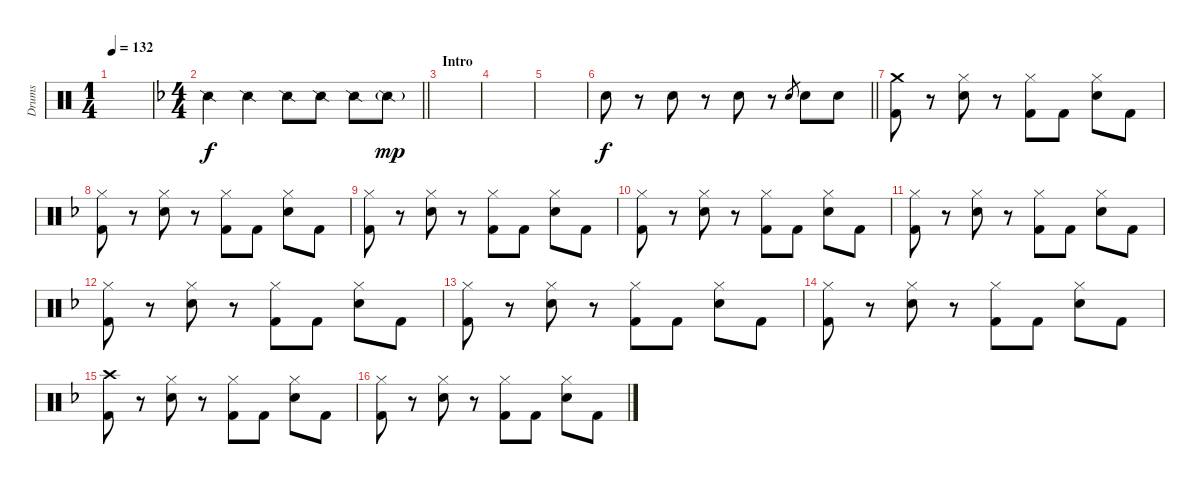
\track ("Drums" "Drums") {instrument percussion}
\staff {score}
\articulation defaults
\ts (1 4)
\tempo 132
\clef neutral
\ks c
|
\ts (4 4)
\barLineRight lightlight
\ks f "Snare (side stick) 2".4 "Snare (side stick) 2".4 "Snare (side stick) 2".8 "Snare (side stick) 2".8 "Snare (side stick) 2".8 "Snare (side stick) 2"{g}.8{dy mp}
|
\section ("" "Intro")
|
|
|
\barLineRight lightlight "Snare (hit) 2".8{dy f}
r.8 "Snare (hit) 2".8 r.8 "Snare (hit) 2".8 r.8 "Snare (hit) 2".8{gr} "Snare (hit) 2".8 "Snare (hit) 2".8 |
("Crash medium (hit)" "Kick (hit) 2").8 r.8 ("Hi-Hat (closed)" "Snare (hit) 2").8 r.8 ("Hi-Hat (closed)" "Kick (hit) 2").8 "Kick (hit) 2".8 ("Hi-Hat (closed)" "Snare (hit) 2").8 "Kick (hit) 2".8 |
("Hi-Hat (closed)" "Kick (hit) 2").8 r.8 ("Hi-Hat (closed)" "Snare (hit) 2").8 r.8 ("Hi-Hat (closed)" "Kick (hit) 2").8 "Kick (hit) 2".8 ("Hi-Hat (closed)" "Snare (hit) 2").8 "Kick (hit) 2".8 |
("Hi-Hat (closed)" "Kick (hit) 2").8 r.8 ("Hi-Hat (closed)" "Snare (hit) 2").8 r.8 ("Hi-Hat (closed)" "Kick (hit) 2").8 "Kick (hit) 2".8 ("Hi-Hat (closed)" "Snare (hit) 2").8 "Kick (hit) 2".8 |
("Hi-Hat (closed)" "Kick (hit) 2").8 r.8 ("Hi-Hat (closed)" "Snare (hit) 2").8 r.8 ("Hi-Hat (closed)" "Kick (hit) 2").8 "Kick (hit) 2".8 ("Hi-Hat (closed)" "Snare (hit) 2").8 "Kick (hit) 2".8 |
("Hi-Hat (closed)" "Kick (hit) 2").8 r.8 ("Hi-Hat (closed)" "Snare (hit) 2").8 r.8 ("Hi-Hat (closed)" "Kick (hit) 2").8 "Kick (hit) 2".8 ("Hi-Hat (closed)" "Snare (hit) 2").8 "Kick (hit) 2".8 |
("Hi-Hat (closed)" "Kick (hit) 2").8 r.8 ("Hi-Hat (closed)" "Snare (hit) 2").8 r.8 ("Hi-Hat (closed)" "Kick (hit) 2").8 "Kick (hit) 2".8 ("Hi-Hat (closed)" "Snare (hit) 2").8 "Kick (hit) 2".8 |
("Hi-Hat (closed)" "Kick (hit) 2").8 r.8 ("Hi-Hat (closed)" "Snare (hit) 2").8 r.8 ("Hi-Hat (closed)" "Kick (hit) 2").8 "Kick (hit) 2".8 ("Hi-Hat (closed)" "Snare (hit) 2").8 "Kick (hit) 2".8 |
("Hi-Hat (closed)" "Kick (hit) 2").8 r.8 ("Hi-Hat (closed)" "Snare (hit) 2").8 r.8 ("Hi-Hat (closed)" "Kick (hit) 2").8 "Kick (hit) 2".8 ("Hi-Hat (closed)" "Snare (hit) 2").8 "Kick (hit) 2".8 |
("Crash high (hit)" "Kick (hit) 2").8 r.8 ("Hi-Hat (closed)" "Snare (hit) 2").8 r.8 ("Hi-Hat (closed)" "Kick (hit) 2").8 "Kick (hit) 2".8 ("Hi-Hat (closed)" "Snare (hit) 2").8 "Kick (hit) 2".8 |
("Hi-Hat (closed)" "Kick (hit) 2").8 r.8 ("Hi-Hat (closed)" "Snare (hit) 2").8 r.8 ("Hi-Hat (closed)" "Kick (hit) 2").8 "Kick (hit) 2".8 ("Hi-Hat (closed)" "Snare (hit) 2").8 "Kick (hit) 2".8
